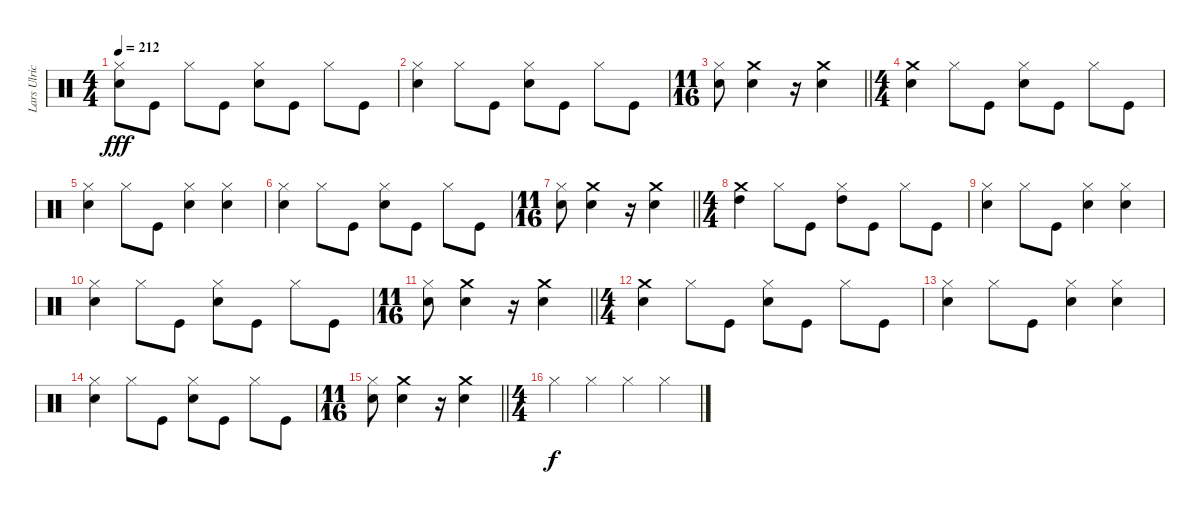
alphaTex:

\track ("Lars Ulrich" "Lars Ulric") {instrument percussion}
\staff {score}
\articulation defaults
\ts (4 4)
\tempo 212
\clef neutral
\ks c
("Snare (hit) 2" "Hi-Hat (closed)").8{dy fff} "Kick (hit)".8 "Hi-Hat (closed)".8 "Kick (hit)".8 ("Snare (hit) 2" "Hi-Hat (closed)").8 "Kick (hit)".8 "Hi-Hat (closed)".8 "Kick (hit)".8 |
("Snare (hit) 2" "Hi-Hat (closed)").4 "Hi-Hat (closed)".8 "Kick (hit)".8 ("Snare (hit) 2" "Hi-Hat (closed)").8 "Kick (hit)".8 "Hi-Hat (closed)".8 "Kick (hit)".8 |
\ts (11 16)
\barLineRight lightlight
("Hi-Hat (closed)" "Snare (hit) 2").8 ("Snare (hit) 2" "Crash medium (hit)").4 r.16 ("Crash medium (hit)" "Snare (hit) 2").4 |
\ts (4 4)
("Crash medium (hit)" "Snare (hit) 2").4 "Hi-Hat (closed)".8 "Kick (hit)".8 ("Hi-Hat (closed)" "Snare (hit) 2").8 "Kick (hit)".8 "Hi-Hat (closed)".8 "Kick (hit)".8 |
("Snare (hit) 2" "Hi-Hat (closed)").4 "Hi-Hat (closed)".8 "Kick (hit)".8 ("Hi-Hat (closed)" "Snare (hit) 2").4 ("Snare (hit) 2" "Hi-Hat (closed)").4 |
("Snare (hit) 2" "Hi-Hat (closed)").4 "Hi-Hat (closed)".8 "Kick (hit)".8 ("Snare (hit) 2" "Hi-Hat (closed)").8 "Kick (hit)".8 "Hi-Hat (closed)".8 "Kick (hit)".8 |
\ts (11 16)
\barLineRight lightlight
("Snare (hit) 2" "Hi-Hat (closed)").8 ("Snare (hit) 2" "Crash medium (hit)").4 r.16 ("Snare (hit) 2" "Crash medium (hit)").4 |
\ts (4 4)
("High Tom (hit)" "Crash medium (hit)").4 "Hi-Hat (closed)".8 "Kick (hit)".8 ("High Tom (hit)" "Hi-Hat (closed)").8 "Kick (hit)".8 "Hi-Hat (closed)".8 "Kick (hit)".8 |
("Snare (hit) 2" "Hi-Hat (closed)").4 "Hi-Hat (closed)".8 "Kick (hit)".8 ("Hi-Hat (closed)" "Snare (hit) 2").4 ("Snare (hit) 2" "Hi-Hat (closed)").4 |
("Snare (hit) 2" "Hi-Hat (closed)").4 "Hi-Hat (closed)".8 "Kick (hit)".8 ("Snare (hit) 2" "Hi-Hat (closed)").8 "Kick (hit)".8 "Hi-Hat (closed)".8 "Kick (hit)".8 |
\ts (11 16)
\barLineRight lightlight
("Snare (hit) 2" "Hi-Hat (closed)").8 ("Crash medium (hit)" "Snare (hit) 2").4 r.16 ("Crash medium (hit)" "Snare (hit) 2").4 |
\ts (4 4)
("Snare (hit) 2" "Crash medium (hit)").4 "Hi-Hat (closed)".8 "Kick (hit)".8 ("Hi-Hat (closed)" "Snare (hit) 2").8 "Kick (hit)".8 "Hi-Hat (closed)".8 "Kick (hit)".8 |
("Hi-Hat (closed)" "Snare (hit) 2").4 "Hi-Hat (closed)".8 "Kick (hit)".8 ("Hi-Hat (closed)" "Snare (hit) 2").4 ("Snare (hit) 2" "Hi-Hat (closed)").4 |
("Hi-Hat (closed)" "Snare (hit) 2").4 "Hi-Hat (closed)".8 "Kick (hit)".8 ("Hi-Hat (closed)" "Snare (hit) 2").8 "Kick (hit)".8 "Hi-Hat (closed)".8 "Kick (hit)".8 |
\ts (11 16)
\barLineRight lightlight
("Hi-Hat (closed)" "Snare (hit) 2").8 ("Snare (hit) 2" "Crash medium (hit)").4 r.16 ("Crash medium (hit)" "Snare (hit) 2").4 |
\ts (4 4)
"Hi-Hat (closed)".4{dy f} "Hi-Hat (closed)".4 "Hi-Hat (closed)".4 "Hi-Hat (closed)".4
